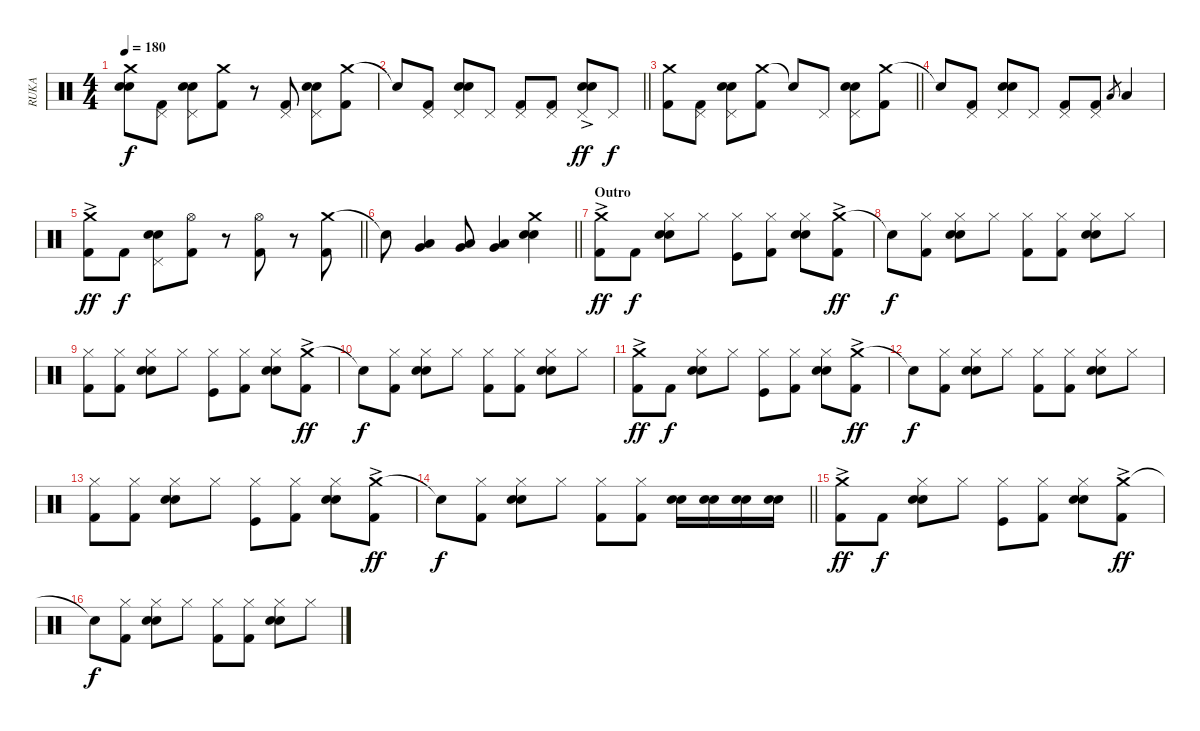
\track ("RUKA" "RUKA") {instrument percussion}
\staff {score}
\articulation defaults
\ts (4 4)
\tempo 180
\clef neutral
\ks c
("Crash medium (hit)" "Snare (hit) 2" "Electric Snare (hit)").8{dy f} ("Pedal Hi-Hat (hit)" "Kick (hit) 2").8 ("Pedal Hi-Hat (hit)" "Snare (hit) 2" "Electric Snare (hit)").8 ("Crash medium (hit)" "Kick (hit) 2").8 r.8 ("Pedal Hi-Hat (hit)" "Kick (hit) 2").8 ("Pedal Hi-Hat (hit)" "Snare (hit) 2" "Electric Snare (hit)").8 ("Crash medium (hit)" "Kick (hit) 2").8 |
\barLineRight lightlight "Snare (hit)"{t}.8
("Pedal Hi-Hat (hit)" "Kick (hit) 2").8 ("Pedal Hi-Hat (hit)" "Snare (hit) 2" "Electric Snare (hit)").8 "Pedal Hi-Hat (hit)".8 ("Pedal Hi-Hat (hit)" "Kick (hit) 2").8 ("Pedal Hi-Hat (hit)" "Kick (hit) 2").8 ("Pedal Hi-Hat (hit)"{ac} "Snare (hit) 2" "Electric Snare (hit)").8{dy ff} "Pedal Hi-Hat (hit)".8{dy f} |
\barLineRight lightlight
("Crash medium (hit)" "Kick (hit) 2").8 ("Pedal Hi-Hat (hit)" "Kick (hit) 2").8 ("Pedal Hi-Hat (hit)" "Snare (hit) 2" "Electric Snare (hit)").8 ("Crash medium (hit)" "Kick (hit) 2").8 "Snare (hit)"{t}.8 "Pedal Hi-Hat (hit)".8 ("Pedal Hi-Hat (hit)" "Snare (hit) 2" "Electric Snare (hit)").8 ("Crash medium (hit)" "Kick (hit) 2").8 |
"Snare (hit)"{t}.8 ("Pedal Hi-Hat (hit)" "Kick (hit) 2").8 ("Pedal Hi-Hat (hit)" "Snare (hit) 2" "Electric Snare (hit)").8 "Pedal Hi-Hat (hit)".8 ("Pedal Hi-Hat (hit)" "Kick (hit) 2").8 ("Pedal Hi-Hat (hit)" "Kick (hit) 2").8 "Low Tom (hit)".8{gr} "Low Tom (hit)".4 |
\barLineRight lightlight
("Crash medium (hit)"{ac} "Kick (hit) 2").8{dy ff} "Kick (hit) 2".8{dy f} ("Pedal Hi-Hat (hit)" "Snare (hit) 2" "Electric Snare (hit)").8 ("Hi-Hat (open)" "Kick (hit) 2").8 r.8 ("Hi-Hat (open)" "Kick (hit) 2").8 r.8 ("Crash medium (hit)" "Kick (hit) 2").8 |
\barLineRight lightlight "Snare (hit)"{t}.8
("Low Tom (hit)" "Very Low Tom (hit)").4 ("Low Tom (hit)" "Very Low Tom (hit)").8 ("Low Tom (hit)" "Very Low Tom (hit)").4 ("Crash medium (hit)" "Snare (hit) 2" "Electric Snare (hit)").4 |
\section ("" "Outro")
("Crash medium (hit)"{ac} "Kick (hit) 2").8{dy ff} "Kick (hit) 2".8{dy f} ("Hi-Hat (closed)" "Snare (hit) 2" "Electric Snare (hit)").8 "Hi-Hat (closed)".8 ("Hi-Hat (closed)" "Kick (hit)").8 ("Hi-Hat (closed)" "Kick (hit) 2").8 ("Hi-Hat (closed)" "Snare (hit) 2" "Electric Snare (hit)").8 ("Crash medium (hit)"{ac} "Kick (hit) 2").8{dy ff} |
"Snare (hit)"{t}.8{dy f} ("Hi-Hat (closed)" "Kick (hit) 2").8 ("Hi-Hat (closed)" "Snare (hit) 2" "Electric Snare (hit)").8 "Hi-Hat (closed)".8 ("Hi-Hat (closed)" "Kick (hit) 2").8 ("Hi-Hat (closed)" "Kick (hit) 2").8 ("Hi-Hat (closed)" "Snare (hit) 2" "Electric Snare (hit)").8 "Hi-Hat (closed)".8 |
("Hi-Hat (closed)" "Kick (hit) 2").8 ("Hi-Hat (closed)" "Kick (hit) 2").8 ("Hi-Hat (closed)" "Snare (hit) 2" "Electric Snare (hit)").8 "Hi-Hat (closed)".8 ("Hi-Hat (closed)" "Kick (hit)").8 ("Hi-Hat (closed)" "Kick (hit) 2").8 ("Hi-Hat (closed)" "Snare (hit) 2" "Electric Snare (hit)").8 ("Crash medium (hit)"{ac} "Kick (hit) 2").8{dy ff} |
"Snare (hit)"{t}.8{dy f} ("Hi-Hat (closed)" "Kick (hit) 2").8 ("Hi-Hat (closed)" "Snare (hit) 2" "Electric Snare (hit)").8 "Hi-Hat (closed)".8 ("Hi-Hat (closed)" "Kick (hit) 2").8 ("Hi-Hat (closed)" "Kick (hit) 2").8 ("Hi-Hat (closed)" "Snare (hit) 2" "Electric Snare (hit)").8 "Hi-Hat (closed)".8 |
("Crash medium (hit)"{ac} "Kick (hit) 2").8{dy ff} "Kick (hit) 2".8{dy f} ("Hi-Hat (closed)" "Snare (hit) 2" "Electric Snare (hit)").8 "Hi-Hat (closed)".8 ("Hi-Hat (closed)" "Kick (hit)").8 ("Hi-Hat (closed)" "Kick (hit) 2").8 ("Hi-Hat (closed)" "Snare (hit) 2" "Electric Snare (hit)").8 ("Crash medium (hit)"{ac} "Kick (hit) 2").8{dy ff} |
"Snare (hit)"{t}.8{dy f} ("Hi-Hat (closed)" "Kick (hit) 2").8 ("Hi-Hat (closed)" "Snare (hit) 2" "Electric Snare (hit)").8 "Hi-Hat (closed)".8 ("Hi-Hat (closed)" "Kick (hit) 2").8 ("Hi-Hat (closed)" "Kick (hit) 2").8 ("Hi-Hat (closed)" "Snare (hit) 2" "Electric Snare (hit)").8 "Hi-Hat (closed)".8 |
("Hi-Hat (closed)" "Kick (hit) 2").8 ("Hi-Hat (closed)" "Kick (hit) 2").8 ("Hi-Hat (closed)" "Snare (hit) 2" "Electric Snare (hit)").8 "Hi-Hat (closed)".8 ("Hi-Hat (closed)" "Kick (hit)").8 ("Hi-Hat (closed)" "Kick (hit) 2").8 ("Hi-Hat (closed)" "Snare (hit) 2" "Electric Snare (hit)").8 ("Crash medium (hit)"{ac} "Kick (hit) 2").8{dy ff} |
\barLineRight lightlight "Snare (hit)"{t}.8{dy f}
("Hi-Hat (closed)" "Kick (hit) 2").8 ("Hi-Hat (closed)" "Snare (hit) 2" "Electric Snare (hit)").8 "Hi-Hat (closed)".8 ("Hi-Hat (closed)" "Kick (hit) 2").8 ("Hi-Hat (closed)" "Kick (hit) 2").8 ("Snare (hit) 2" "Electric Snare (hit)").16 ("Snare (hit) 2" "Electric Snare (hit)").16 ("Snare (hit) 2" "Electric Snare (hit)").16 ("Snare (hit) 2" "Electric Snare (hit)").16 |
("Crash medium (hit)"{ac} "Kick (hit) 2").8{dy ff} "Kick (hit) 2".8{dy f} ("Hi-Hat (closed)" "Snare (hit) 2" "Electric Snare (hit)").8 "Hi-Hat (closed)".8 ("Hi-Hat (closed)" "Kick (hit)").8 ("Hi-Hat (closed)" "Kick (hit) 2").8 ("Hi-Hat (closed)" "Snare (hit) 2" "Electric Snare (hit)").8 ("Crash medium (hit)"{ac} "Kick (hit) 2").8{dy ff} |
"Snare (hit)"{t}.8{dy f} ("Hi-Hat (closed)" "Kick (hit) 2").8 ("Hi-Hat (closed)" "Snare (hit) 2" "Electric Snare (hit)").8 "Hi-Hat (closed)".8 ("Hi-Hat (closed)" "Kick (hit) 2").8 ("Hi-Hat (closed)" "Kick (hit) 2").8 ("Hi-Hat (closed)" "Snare (hit) 2" "Electric Snare (hit)").8 "Hi-Hat (closed)".8
